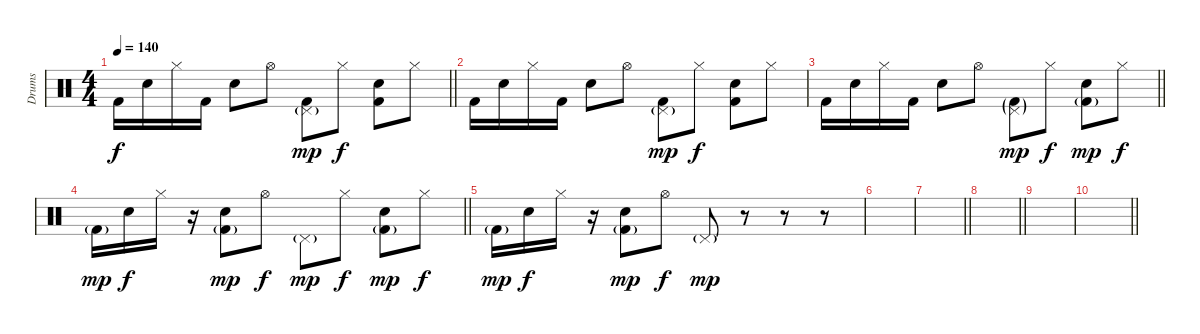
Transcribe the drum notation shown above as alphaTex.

\track ("Drums" "Drums") {instrument percussion}
\staff {score}
\articulation defaults
\ts (4 4)
\tempo 140
\clef neutral
\barLineRight lightlight
\ks c "Kick (hit) 2".16{dy f} "Snare (hit) 2".16 "Hi-Hat (closed)".16 "Kick (hit) 2".16 "Snare (hit) 2".8 "Hi-Hat (open)".8
("Pedal Hi-Hat (hit)"{g} "Kick (hit) 2").8{dy mp} "Hi-Hat (closed)".8{dy f} ("Snare (hit) 2" "Kick (hit) 2").8 "Hi-Hat (closed)".8 |
"Kick (hit) 2".16 "Snare (hit) 2".16 "Hi-Hat (closed)".16 "Kick (hit) 2".16 "Snare (hit) 2".8 "Hi-Hat (open)".8 ("Pedal Hi-Hat (hit)"{g} "Kick (hit) 2").8{dy mp} "Hi-Hat (closed)".8{dy f} ("Snare (hit) 2" "Kick (hit) 2").8 "Hi-Hat (closed)".8 |
\barLineRight lightlight "Kick (hit) 2".16 "Snare (hit) 2".16 "Hi-Hat (closed)".16 "Kick (hit) 2".16 "Snare (hit) 2".8 "Hi-Hat (open)".8
("Pedal Hi-Hat (hit)"{g} "Kick (hit) 2"{g}).8{dy mp} "Hi-Hat (closed)".8{dy f} ("Snare (hit) 2" "Kick (hit) 2"{g}).8{dy mp} "Hi-Hat (closed)".8{dy f} |
\barLineRight lightlight "Kick (hit) 2"{g}.16{dy mp} "Snare (hit) 2".16{dy f} "Hi-Hat (closed)".16
r.16 ("Snare (hit) 2" "Kick (hit) 2"{g}).8{dy mp} "Hi-Hat (open)".8{dy f} "Pedal Hi-Hat (hit)"{g}.8{dy mp} "Hi-Hat (closed)".8{dy f} ("Snare (hit) 2" "Kick (hit) 2"{g}).8{dy mp} "Hi-Hat (closed)".8{dy f} |
"Kick (hit) 2"{g}.16{dy mp} "Snare (hit) 2".16{dy f} "Hi-Hat (closed)".16 r.16 ("Snare (hit) 2" "Kick (hit) 2"{g}).8{dy mp} "Hi-Hat (open)".8{dy f} "Pedal Hi-Hat (hit)"{g}.8{dy mp} r.8 r.8 r.8 |
|
\barLineRight lightlight
|
\barLineRight lightlight
|
|
\barLineRight lightlight
